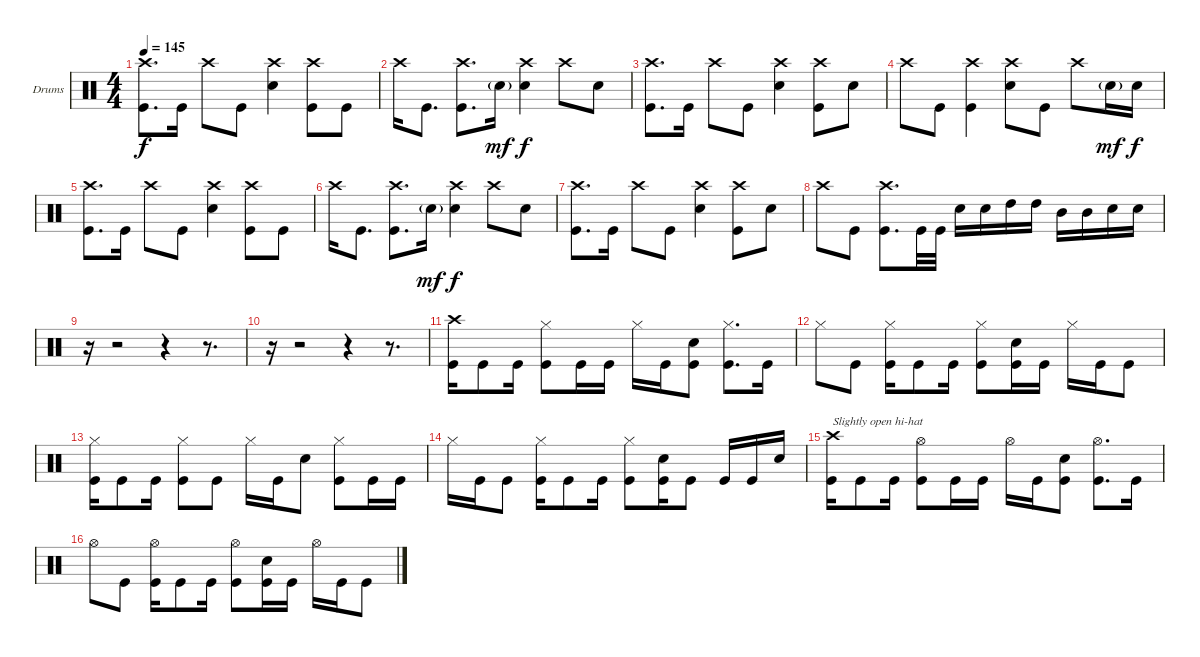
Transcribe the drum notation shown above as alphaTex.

\bracketExtendMode groupsimilarinstruments
\firstSystemTrackNameOrientation horizontal
\otherSystemsTrackNameOrientation horizontal
\track ("Drumkit" "Drums") {instrument percussion}
\staff {score}
\articulation defaults
\ts (4 4)
\tempo 145
\clef neutral
\ks c
("Crash high (hit)" "Kick (hit)").8{d dy f} "Kick (hit)".16 "Crash high (hit)".8 "Kick (hit)".8 ("Crash high (hit)" "Snare (hit) 2").4 ("Crash high (hit)" "Kick (hit)").8 "Kick (hit)".8 |
"Crash high (hit)".16 "Kick (hit)".8{d} ("Crash high (hit)" "Kick (hit)").8{d} "Snare (hit) 2"{g}.16{dy mf} ("Crash high (hit)" "Snare (hit) 2").4{dy f} "Crash high (hit)".8 "Snare (hit) 2".8 |
("Crash high (hit)" "Kick (hit)").8{d} "Kick (hit)".16 "Crash high (hit)".8 "Kick (hit)".8 ("Crash high (hit)" "Snare (hit) 2").4 ("Crash high (hit)" "Kick (hit)").8 "Snare (hit) 2".8 |
"Crash high (hit)".8 "Kick (hit)".8 ("Crash high (hit)" "Kick (hit)").4 ("Crash high (hit)" "Snare (hit) 2").8 "Kick (hit)".8 "Crash high (hit)".8 "Snare (hit) 2"{g}.16{dy mf} "Snare (hit) 2".16{dy f} |
("Crash high (hit)" "Kick (hit)").8{d} "Kick (hit)".16 "Crash high (hit)".8 "Kick (hit)".8 ("Crash high (hit)" "Snare (hit) 2").4 ("Crash high (hit)" "Kick (hit)").8 "Kick (hit)".8 |
"Crash high (hit)".16 "Kick (hit)".8{d} ("Crash high (hit)" "Kick (hit)").8{d} "Snare (hit) 2"{g}.16{dy mf} ("Crash high (hit)" "Snare (hit) 2").4{dy f} "Crash high (hit)".8 "Snare (hit) 2".8 |
("Crash high (hit)" "Kick (hit)").8{d} "Kick (hit)".16 "Crash high (hit)".8 "Kick (hit)".8 ("Crash high (hit)" "Snare (hit) 2").4 ("Crash high (hit)" "Kick (hit)").8 "Snare (hit) 2".8 |
"Crash high (hit)".8 "Kick (hit)".8 ("Crash high (hit)" "Kick (hit)").8{d} "Kick (hit)".32 "Kick (hit)".32 "Snare (hit) 2".16 "Snare (hit) 2".16 "High Tom (hit)".16 "High Tom (hit)".16 "Mid Tom (hit)".16 "Mid Tom (hit)".16 "Snare (hit) 2".16 "Snare (hit) 2".16 |
r.16 r.2 r.4 r.8{d} |
r.16 r.2 r.4 r.8{d} |
("Crash high (hit)" "Kick (hit)").16 "Kick (hit)".8 "Kick (hit)".16 ("Hi-Hat (closed)" "Kick (hit)").8 "Kick (hit)".16 "Kick (hit)".16 "Hi-Hat (closed)".16 "Kick (hit)".16 ("Snare (hit) 2" "Kick (hit)").8 ("Hi-Hat (closed)" "Kick (hit)").8{d} "Kick (hit)".16 |
"Hi-Hat (closed)".8 "Kick (hit)".8 ("Hi-Hat (closed)" "Kick (hit)").16 "Kick (hit)".8 "Kick (hit)".16 ("Hi-Hat (closed)" "Kick (hit)").8 ("Snare (hit) 2" "Kick (hit)").16 "Kick (hit)".16 "Hi-Hat (closed)".16 "Kick (hit)".16 "Kick (hit)".8 |
("Hi-Hat (closed)" "Kick (hit)").16 "Kick (hit)".8 "Kick (hit)".16 ("Hi-Hat (closed)" "Kick (hit)").8 "Kick (hit)".8 "Hi-Hat (closed)".16 "Kick (hit)".16 "Snare (hit) 2".8 ("Hi-Hat (closed)" "Kick (hit)").8 "Kick (hit)".16 "Kick (hit)".16 |
"Hi-Hat (closed)".16 "Kick (hit)".16 "Kick (hit)".8 ("Hi-Hat (closed)" "Kick (hit)").16 "Kick (hit)".8 "Kick (hit)".16 ("Hi-Hat (closed)" "Kick (hit)").8 ("Snare (hit) 2" "Kick (hit)").16 "Kick (hit)".8 "Kick (hit)".16 "Kick (hit)".16 "Snare (hit) 2".16 |
("Crash high (hit)" "Kick (hit)").16{txt "Slightly open hi-hat"} "Kick (hit)".8 "Kick (hit)".16 ("Hi-Hat (open)" "Kick (hit)").8 "Kick (hit)".16 "Kick (hit)".16 "Hi-Hat (open)".16 "Kick (hit)".16 ("Snare (hit) 2" "Kick (hit)").8 ("Hi-Hat (open)" "Kick (hit)").8{d} "Kick (hit)".16 |
"Hi-Hat (open)".8 "Kick (hit)".8 ("Hi-Hat (open)" "Kick (hit)").16 "Kick (hit)".8 "Kick (hit)".16 ("Hi-Hat (open)" "Kick (hit)").8 ("Snare (hit) 2" "Kick (hit)").16 "Kick (hit)".16 "Hi-Hat (open)".16 "Kick (hit)".16 "Kick (hit)".8
